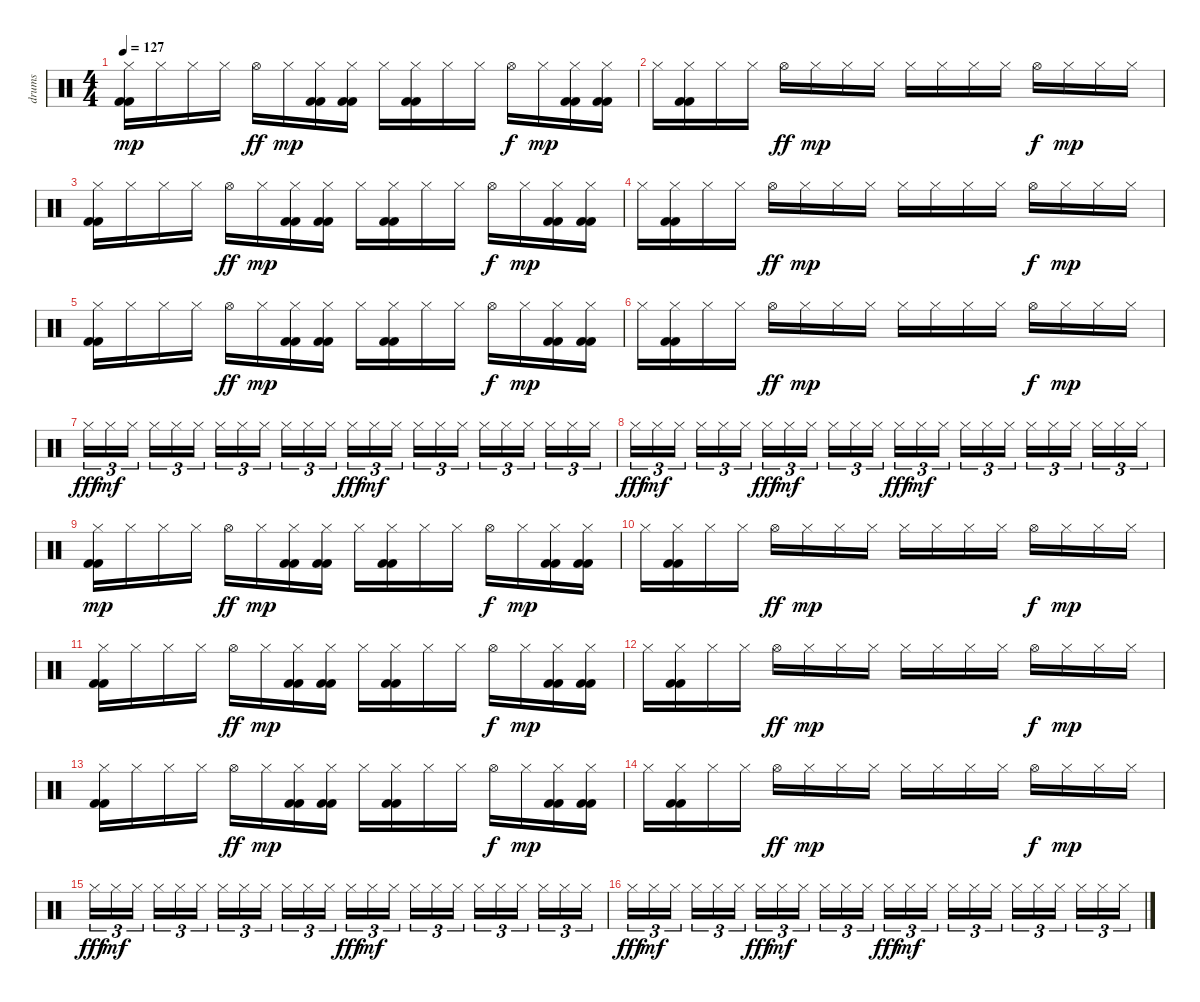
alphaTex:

\track ("drums" "drums") {instrument percussion}
\staff {score}
\articulation defaults
\ts (4 4)
\tempo 127
\clef neutral
\ks c
("Hi-Hat (closed)" "Kick (hit) 2" "Kick (hit) 2").16{dy mp} "Hi-Hat (closed)".16 "Hi-Hat (closed)".16 "Hi-Hat (closed)".16 "Hi-Hat (open)".16{dy ff} "Hi-Hat (closed)".16{dy mp} ("Hi-Hat (closed)" "Kick (hit) 2" "Kick (hit) 2").16 ("Hi-Hat (closed)" "Kick (hit) 2" "Kick (hit) 2").16 "Hi-Hat (closed)".16 ("Hi-Hat (closed)" "Kick (hit) 2" "Kick (hit) 2").16 "Hi-Hat (closed)".16 "Hi-Hat (closed)".16 "Hi-Hat (open)".16{dy f} "Hi-Hat (closed)".16{dy mp} ("Hi-Hat (closed)" "Kick (hit) 2" "Kick (hit) 2").16 ("Hi-Hat (closed)" "Kick (hit) 2" "Kick (hit) 2").16 |
"Hi-Hat (closed)".16 ("Hi-Hat (closed)" "Kick (hit) 2" "Kick (hit) 2").16 "Hi-Hat (closed)".16 "Hi-Hat (closed)".16 "Hi-Hat (open)".16{dy ff} "Hi-Hat (closed)".16{dy mp} "Hi-Hat (closed)".16 "Hi-Hat (closed)".16 "Hi-Hat (closed)".16 "Hi-Hat (closed)".16 "Hi-Hat (closed)".16 "Hi-Hat (closed)".16 "Hi-Hat (open)".16{dy f} "Hi-Hat (closed)".16{dy mp} "Hi-Hat (closed)".16 "Hi-Hat (closed)".16 |
("Hi-Hat (closed)" "Kick (hit) 2" "Kick (hit) 2").16 "Hi-Hat (closed)".16 "Hi-Hat (closed)".16 "Hi-Hat (closed)".16 "Hi-Hat (open)".16{dy ff} "Hi-Hat (closed)".16{dy mp} ("Hi-Hat (closed)" "Kick (hit) 2" "Kick (hit) 2").16 ("Hi-Hat (closed)" "Kick (hit) 2" "Kick (hit) 2").16 "Hi-Hat (closed)".16 ("Hi-Hat (closed)" "Kick (hit) 2" "Kick (hit) 2").16 "Hi-Hat (closed)".16 "Hi-Hat (closed)".16 "Hi-Hat (open)".16{dy f} "Hi-Hat (closed)".16{dy mp} ("Hi-Hat (closed)" "Kick (hit) 2" "Kick (hit) 2").16 ("Hi-Hat (closed)" "Kick (hit) 2" "Kick (hit) 2").16 |
"Hi-Hat (closed)".16 ("Hi-Hat (closed)" "Kick (hit) 2" "Kick (hit) 2").16 "Hi-Hat (closed)".16 "Hi-Hat (closed)".16 "Hi-Hat (open)".16{dy ff} "Hi-Hat (closed)".16{dy mp} "Hi-Hat (closed)".16 "Hi-Hat (closed)".16 "Hi-Hat (closed)".16 "Hi-Hat (closed)".16 "Hi-Hat (closed)".16 "Hi-Hat (closed)".16 "Hi-Hat (open)".16{dy f} "Hi-Hat (closed)".16{dy mp} "Hi-Hat (closed)".16 "Hi-Hat (closed)".16 |
("Hi-Hat (closed)" "Kick (hit) 2" "Kick (hit) 2").16 "Hi-Hat (closed)".16 "Hi-Hat (closed)".16 "Hi-Hat (closed)".16 "Hi-Hat (open)".16{dy ff} "Hi-Hat (closed)".16{dy mp} ("Hi-Hat (closed)" "Kick (hit) 2" "Kick (hit) 2").16 ("Hi-Hat (closed)" "Kick (hit) 2" "Kick (hit) 2").16 "Hi-Hat (closed)".16 ("Hi-Hat (closed)" "Kick (hit) 2" "Kick (hit) 2").16 "Hi-Hat (closed)".16 "Hi-Hat (closed)".16 "Hi-Hat (open)".16{dy f} "Hi-Hat (closed)".16{dy mp} ("Hi-Hat (closed)" "Kick (hit) 2" "Kick (hit) 2").16 ("Hi-Hat (closed)" "Kick (hit) 2" "Kick (hit) 2").16 |
"Hi-Hat (closed)".16 ("Hi-Hat (closed)" "Kick (hit) 2" "Kick (hit) 2").16 "Hi-Hat (closed)".16 "Hi-Hat (closed)".16 "Hi-Hat (open)".16{dy ff} "Hi-Hat (closed)".16{dy mp} "Hi-Hat (closed)".16 "Hi-Hat (closed)".16 "Hi-Hat (closed)".16 "Hi-Hat (closed)".16 "Hi-Hat (closed)".16 "Hi-Hat (closed)".16 "Hi-Hat (open)".16{dy f} "Hi-Hat (closed)".16{dy mp} "Hi-Hat (closed)".16 "Hi-Hat (closed)".16 |
"Hi-Hat (closed)".16{tu (3 2) dy fff} "Hi-Hat (closed)".16{tu (3 2) dy mf} "Hi-Hat (closed)".16{tu (3 2)} "Hi-Hat (closed)".16{tu (3 2)} "Hi-Hat (closed)".16{tu (3 2)} "Hi-Hat (closed)".16{tu (3 2)} "Hi-Hat (closed)".16{tu (3 2)} "Hi-Hat (closed)".16{tu (3 2)} "Hi-Hat (closed)".16{tu (3 2)} "Hi-Hat (closed)".16{tu (3 2)} "Hi-Hat (closed)".16{tu (3 2)} "Hi-Hat (closed)".16{tu (3 2)} "Hi-Hat (closed)".16{tu (3 2) dy fff} "Hi-Hat (closed)".16{tu (3 2) dy mf} "Hi-Hat (closed)".16{tu (3 2)} "Hi-Hat (closed)".16{tu (3 2)} "Hi-Hat (closed)".16{tu (3 2)} "Hi-Hat (closed)".16{tu (3 2)} "Hi-Hat (closed)".16{tu (3 2)} "Hi-Hat (closed)".16{tu (3 2)} "Hi-Hat (closed)".16{tu (3 2)} "Hi-Hat (closed)".16{tu (3 2)} "Hi-Hat (closed)".16{tu (3 2)} "Hi-Hat (closed)".16{tu (3 2)} |
"Hi-Hat (closed)".16{tu (3 2) dy fff} "Hi-Hat (closed)".16{tu (3 2) dy mf} "Hi-Hat (closed)".16{tu (3 2)} "Hi-Hat (closed)".16{tu (3 2)} "Hi-Hat (closed)".16{tu (3 2)} "Hi-Hat (closed)".16{tu (3 2)} "Hi-Hat (closed)".16{tu (3 2) dy fff} "Hi-Hat (closed)".16{tu (3 2) dy mf} "Hi-Hat (closed)".16{tu (3 2)} "Hi-Hat (closed)".16{tu (3 2)} "Hi-Hat (closed)".16{tu (3 2)} "Hi-Hat (closed)".16{tu (3 2)} "Hi-Hat (closed)".16{tu (3 2) dy fff} "Hi-Hat (closed)".16{tu (3 2) dy mf} "Hi-Hat (closed)".16{tu (3 2)} "Hi-Hat (closed)".16{tu (3 2)} "Hi-Hat (closed)".16{tu (3 2)} "Hi-Hat (closed)".16{tu (3 2)} "Hi-Hat (closed)".16{tu (3 2)} "Hi-Hat (closed)".16{tu (3 2)} "Hi-Hat (closed)".16{tu (3 2)} "Hi-Hat (closed)".16{tu (3 2)} "Hi-Hat (closed)".16{tu (3 2)} "Hi-Hat (closed)".16{tu (3 2)} |
("Hi-Hat (closed)" "Kick (hit) 2" "Kick (hit) 2").16{dy mp} "Hi-Hat (closed)".16 "Hi-Hat (closed)".16 "Hi-Hat (closed)".16 "Hi-Hat (open)".16{dy ff} "Hi-Hat (closed)".16{dy mp} ("Hi-Hat (closed)" "Kick (hit) 2" "Kick (hit) 2").16 ("Hi-Hat (closed)" "Kick (hit) 2" "Kick (hit) 2").16 "Hi-Hat (closed)".16 ("Hi-Hat (closed)" "Kick (hit) 2" "Kick (hit) 2").16 "Hi-Hat (closed)".16 "Hi-Hat (closed)".16 "Hi-Hat (open)".16{dy f} "Hi-Hat (closed)".16{dy mp} ("Hi-Hat (closed)" "Kick (hit) 2" "Kick (hit) 2").16 ("Hi-Hat (closed)" "Kick (hit) 2" "Kick (hit) 2").16 |
"Hi-Hat (closed)".16 ("Hi-Hat (closed)" "Kick (hit) 2" "Kick (hit) 2").16 "Hi-Hat (closed)".16 "Hi-Hat (closed)".16 "Hi-Hat (open)".16{dy ff} "Hi-Hat (closed)".16{dy mp} "Hi-Hat (closed)".16 "Hi-Hat (closed)".16 "Hi-Hat (closed)".16 "Hi-Hat (closed)".16 "Hi-Hat (closed)".16 "Hi-Hat (closed)".16 "Hi-Hat (open)".16{dy f} "Hi-Hat (closed)".16{dy mp} "Hi-Hat (closed)".16 "Hi-Hat (closed)".16 |
("Hi-Hat (closed)" "Kick (hit) 2" "Kick (hit) 2").16 "Hi-Hat (closed)".16 "Hi-Hat (closed)".16 "Hi-Hat (closed)".16 "Hi-Hat (open)".16{dy ff} "Hi-Hat (closed)".16{dy mp} ("Hi-Hat (closed)" "Kick (hit) 2" "Kick (hit) 2").16 ("Hi-Hat (closed)" "Kick (hit) 2" "Kick (hit) 2").16 "Hi-Hat (closed)".16 ("Hi-Hat (closed)" "Kick (hit) 2" "Kick (hit) 2").16 "Hi-Hat (closed)".16 "Hi-Hat (closed)".16 "Hi-Hat (open)".16{dy f} "Hi-Hat (closed)".16{dy mp} ("Hi-Hat (closed)" "Kick (hit) 2" "Kick (hit) 2").16 ("Hi-Hat (closed)" "Kick (hit) 2" "Kick (hit) 2").16 |
"Hi-Hat (closed)".16 ("Hi-Hat (closed)" "Kick (hit) 2" "Kick (hit) 2").16 "Hi-Hat (closed)".16 "Hi-Hat (closed)".16 "Hi-Hat (open)".16{dy ff} "Hi-Hat (closed)".16{dy mp} "Hi-Hat (closed)".16 "Hi-Hat (closed)".16 "Hi-Hat (closed)".16 "Hi-Hat (closed)".16 "Hi-Hat (closed)".16 "Hi-Hat (closed)".16 "Hi-Hat (open)".16{dy f} "Hi-Hat (closed)".16{dy mp} "Hi-Hat (closed)".16 "Hi-Hat (closed)".16 |
("Hi-Hat (closed)" "Kick (hit) 2" "Kick (hit) 2").16 "Hi-Hat (closed)".16 "Hi-Hat (closed)".16 "Hi-Hat (closed)".16 "Hi-Hat (open)".16{dy ff} "Hi-Hat (closed)".16{dy mp} ("Hi-Hat (closed)" "Kick (hit) 2" "Kick (hit) 2").16 ("Hi-Hat (closed)" "Kick (hit) 2" "Kick (hit) 2").16 "Hi-Hat (closed)".16 ("Hi-Hat (closed)" "Kick (hit) 2" "Kick (hit) 2").16 "Hi-Hat (closed)".16 "Hi-Hat (closed)".16 "Hi-Hat (open)".16{dy f} "Hi-Hat (closed)".16{dy mp} ("Hi-Hat (closed)" "Kick (hit) 2" "Kick (hit) 2").16 ("Hi-Hat (closed)" "Kick (hit) 2" "Kick (hit) 2").16 |
"Hi-Hat (closed)".16 ("Hi-Hat (closed)" "Kick (hit) 2" "Kick (hit) 2").16 "Hi-Hat (closed)".16 "Hi-Hat (closed)".16 "Hi-Hat (open)".16{dy ff} "Hi-Hat (closed)".16{dy mp} "Hi-Hat (closed)".16 "Hi-Hat (closed)".16 "Hi-Hat (closed)".16 "Hi-Hat (closed)".16 "Hi-Hat (closed)".16 "Hi-Hat (closed)".16 "Hi-Hat (open)".16{dy f} "Hi-Hat (closed)".16{dy mp} "Hi-Hat (closed)".16 "Hi-Hat (closed)".16 |
"Hi-Hat (closed)".16{tu (3 2) dy fff} "Hi-Hat (closed)".16{tu (3 2) dy mf} "Hi-Hat (closed)".16{tu (3 2)} "Hi-Hat (closed)".16{tu (3 2)} "Hi-Hat (closed)".16{tu (3 2)} "Hi-Hat (closed)".16{tu (3 2)} "Hi-Hat (closed)".16{tu (3 2)} "Hi-Hat (closed)".16{tu (3 2)} "Hi-Hat (closed)".16{tu (3 2)} "Hi-Hat (closed)".16{tu (3 2)} "Hi-Hat (closed)".16{tu (3 2)} "Hi-Hat (closed)".16{tu (3 2)} "Hi-Hat (closed)".16{tu (3 2) dy fff} "Hi-Hat (closed)".16{tu (3 2) dy mf} "Hi-Hat (closed)".16{tu (3 2)} "Hi-Hat (closed)".16{tu (3 2)} "Hi-Hat (closed)".16{tu (3 2)} "Hi-Hat (closed)".16{tu (3 2)} "Hi-Hat (closed)".16{tu (3 2)} "Hi-Hat (closed)".16{tu (3 2)} "Hi-Hat (closed)".16{tu (3 2)} "Hi-Hat (closed)".16{tu (3 2)} "Hi-Hat (closed)".16{tu (3 2)} "Hi-Hat (closed)".16{tu (3 2)} |
"Hi-Hat (closed)".16{tu (3 2) dy fff} "Hi-Hat (closed)".16{tu (3 2) dy mf} "Hi-Hat (closed)".16{tu (3 2)} "Hi-Hat (closed)".16{tu (3 2)} "Hi-Hat (closed)".16{tu (3 2)} "Hi-Hat (closed)".16{tu (3 2)} "Hi-Hat (closed)".16{tu (3 2) dy fff} "Hi-Hat (closed)".16{tu (3 2) dy mf} "Hi-Hat (closed)".16{tu (3 2)} "Hi-Hat (closed)".16{tu (3 2)} "Hi-Hat (closed)".16{tu (3 2)} "Hi-Hat (closed)".16{tu (3 2)} "Hi-Hat (closed)".16{tu (3 2) dy fff} "Hi-Hat (closed)".16{tu (3 2) dy mf} "Hi-Hat (closed)".16{tu (3 2)} "Hi-Hat (closed)".16{tu (3 2)} "Hi-Hat (closed)".16{tu (3 2)} "Hi-Hat (closed)".16{tu (3 2)} "Hi-Hat (closed)".16{tu (3 2)} "Hi-Hat (closed)".16{tu (3 2)} "Hi-Hat (closed)".16{tu (3 2)} "Hi-Hat (closed)".16{tu (3 2)} "Hi-Hat (closed)".16{tu (3 2)} "Hi-Hat (closed)".16{tu (3 2)}
